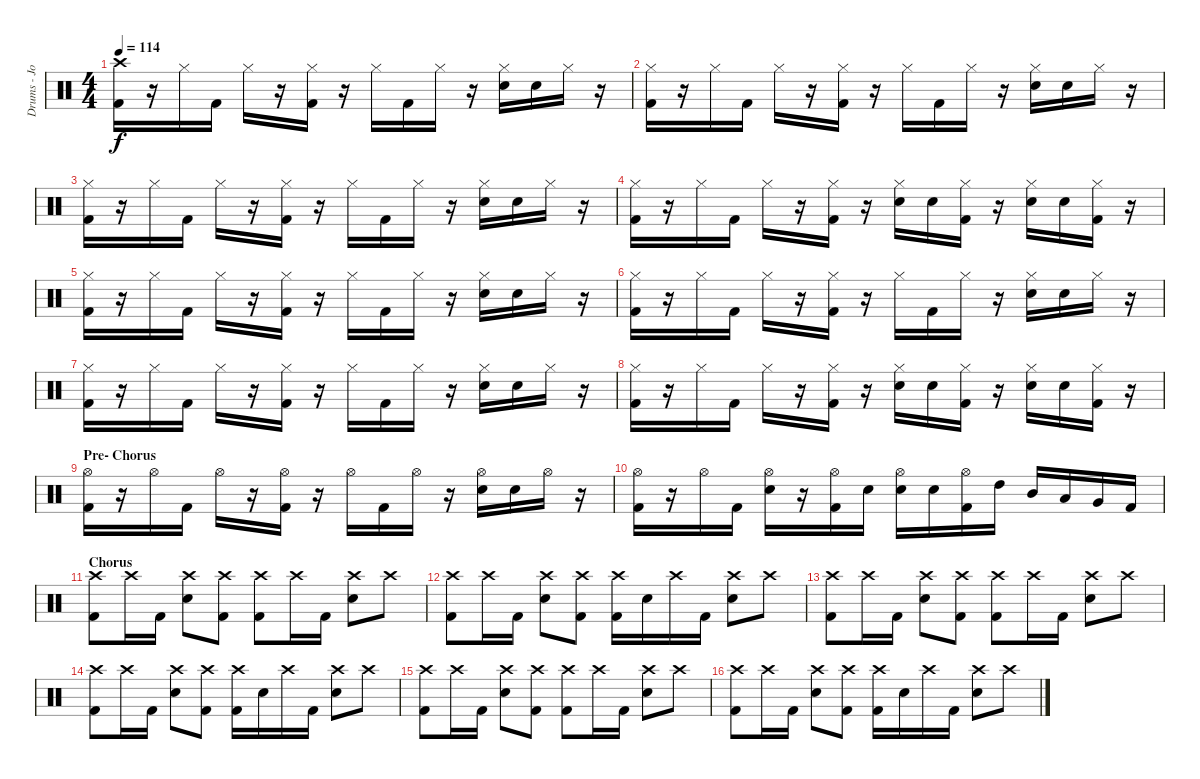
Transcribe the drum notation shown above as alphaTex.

\track ("Drums - Jon Wysocki" "Drums - Jo") {instrument percussion}
\staff {score}
\articulation defaults
\ts (4 4)
\tempo 114
\clef neutral
\ks c
("Crash high (hit)" "Kick (hit) 2").16{dy f} r.16 "Hi-Hat (closed)".16 "Kick (hit) 2".16 "Hi-Hat (closed)".16 r.16 ("Hi-Hat (closed)" "Kick (hit) 2").16 r.16 "Hi-Hat (closed)".16 "Kick (hit) 2".16 "Hi-Hat (closed)".16 r.16 ("Hi-Hat (closed)" "Electric Snare (hit)").16 "Electric Snare (hit)".16 "Hi-Hat (closed)".16 r.16 |
("Hi-Hat (closed)" "Kick (hit) 2").16 r.16 "Hi-Hat (closed)".16 "Kick (hit) 2".16 "Hi-Hat (closed)".16 r.16 ("Hi-Hat (closed)" "Kick (hit) 2").16 r.16 "Hi-Hat (closed)".16 "Kick (hit) 2".16 "Hi-Hat (closed)".16 r.16 ("Hi-Hat (closed)" "Electric Snare (hit)").16 "Electric Snare (hit)".16 "Hi-Hat (closed)".16 r.16 |
("Hi-Hat (closed)" "Kick (hit) 2").16 r.16 "Hi-Hat (closed)".16 "Kick (hit) 2".16 "Hi-Hat (closed)".16 r.16 ("Hi-Hat (closed)" "Kick (hit) 2").16 r.16 "Hi-Hat (closed)".16 "Kick (hit) 2".16 "Hi-Hat (closed)".16 r.16 ("Hi-Hat (closed)" "Electric Snare (hit)").16 "Electric Snare (hit)".16 "Hi-Hat (closed)".16 r.16 |
("Hi-Hat (closed)" "Kick (hit) 2").16 r.16 "Hi-Hat (closed)".16 "Kick (hit) 2".16 "Hi-Hat (closed)".16 r.16 ("Hi-Hat (closed)" "Kick (hit) 2").16 r.16 ("Hi-Hat (closed)" "Electric Snare (hit)").16 "Electric Snare (hit)".16 ("Hi-Hat (closed)" "Kick (hit) 2").16 r.16 ("Hi-Hat (closed)" "Electric Snare (hit)").16 "Electric Snare (hit)".16 ("Hi-Hat (closed)" "Kick (hit) 2").16 r.16 |
("Hi-Hat (closed)" "Kick (hit) 2").16 r.16 "Hi-Hat (closed)".16 "Kick (hit) 2".16 "Hi-Hat (closed)".16 r.16 ("Hi-Hat (closed)" "Kick (hit) 2").16 r.16 "Hi-Hat (closed)".16 "Kick (hit) 2".16 "Hi-Hat (closed)".16 r.16 ("Hi-Hat (closed)" "Electric Snare (hit)").16 "Electric Snare (hit)".16 "Hi-Hat (closed)".16 r.16 |
("Hi-Hat (closed)" "Kick (hit) 2").16 r.16 "Hi-Hat (closed)".16 "Kick (hit) 2".16 "Hi-Hat (closed)".16 r.16 ("Hi-Hat (closed)" "Kick (hit) 2").16 r.16 "Hi-Hat (closed)".16 "Kick (hit) 2".16 "Hi-Hat (closed)".16 r.16 ("Hi-Hat (closed)" "Electric Snare (hit)").16 "Electric Snare (hit)".16 "Hi-Hat (closed)".16 r.16 |
("Hi-Hat (closed)" "Kick (hit) 2").16 r.16 "Hi-Hat (closed)".16 "Kick (hit) 2".16 "Hi-Hat (closed)".16 r.16 ("Hi-Hat (closed)" "Kick (hit) 2").16 r.16 "Hi-Hat (closed)".16 "Kick (hit) 2".16 "Hi-Hat (closed)".16 r.16 ("Hi-Hat (closed)" "Electric Snare (hit)").16 "Electric Snare (hit)".16 "Hi-Hat (closed)".16 r.16 |
("Hi-Hat (closed)" "Kick (hit) 2").16 r.16 "Hi-Hat (closed)".16 "Kick (hit) 2".16 "Hi-Hat (closed)".16 r.16 ("Hi-Hat (closed)" "Kick (hit) 2").16 r.16 ("Hi-Hat (closed)" "Electric Snare (hit)").16 "Electric Snare (hit)".16 ("Hi-Hat (closed)" "Kick (hit) 2").16 r.16 ("Hi-Hat (closed)" "Electric Snare (hit)").16 "Electric Snare (hit)".16 ("Hi-Hat (closed)" "Kick (hit) 2").16 r.16 |
\section ("" "Pre- Chorus")
("Hi-Hat (open)" "Kick (hit) 2").16 r.16 "Hi-Hat (open)".16 "Kick (hit) 2".16 "Hi-Hat (open)".16 r.16 ("Hi-Hat (open)" "Kick (hit) 2").16 r.16 "Hi-Hat (open)".16 "Kick (hit) 2".16 "Hi-Hat (open)".16 r.16 ("Hi-Hat (open)" "Electric Snare (hit)").16 "Electric Snare (hit)".16 "Hi-Hat (open)".16 r.16 |
("Hi-Hat (open)" "Kick (hit) 2").16 r.16 "Hi-Hat (open)".16 "Kick (hit) 2".16 ("Hi-Hat (open)" "Electric Snare (hit)").16 r.16 ("Hi-Hat (open)" "Kick (hit) 2").16 "Electric Snare (hit)".16 ("Hi-Hat (open)" "Electric Snare (hit)").16 "Electric Snare (hit)".16 ("Hi-Hat (open)" "Kick (hit) 2").16 "High Tom (hit)".16 "Mid Tom (hit)".16 "Low Tom (hit)".16 "Very Low Tom (hit)".16 "Kick (hit) 2".16 |
\section ("" "Chorus")
("Crash high (hit)" "Kick (hit) 2").8 "Crash high (hit)".16 "Kick (hit) 2".16 ("Crash high (hit)" "Electric Snare (hit)").8 ("Crash high (hit)" "Kick (hit) 2").8 ("Crash high (hit)" "Kick (hit) 2").8 "Crash high (hit)".16 "Kick (hit) 2".16 ("Crash high (hit)" "Electric Snare (hit)").8 "Crash high (hit)".8 |
("Crash high (hit)" "Kick (hit) 2").8 "Crash high (hit)".16 "Kick (hit) 2".16 ("Crash high (hit)" "Electric Snare (hit)").8 ("Crash high (hit)" "Kick (hit) 2").8 ("Crash high (hit)" "Kick (hit) 2").16 "Electric Snare (hit)".16 "Crash high (hit)".16 "Kick (hit) 2".16 ("Crash high (hit)" "Electric Snare (hit)").8 "Crash high (hit)".8 |
("Crash high (hit)" "Kick (hit) 2").8 "Crash high (hit)".16 "Kick (hit) 2".16 ("Crash high (hit)" "Electric Snare (hit)").8 ("Crash high (hit)" "Kick (hit) 2").8 ("Crash high (hit)" "Kick (hit) 2").8 "Crash high (hit)".16 "Kick (hit) 2".16 ("Crash high (hit)" "Electric Snare (hit)").8 "Crash high (hit)".8 |
("Crash high (hit)" "Kick (hit) 2").8 "Crash high (hit)".16 "Kick (hit) 2".16 ("Crash high (hit)" "Electric Snare (hit)").8 ("Crash high (hit)" "Kick (hit) 2").8 ("Crash high (hit)" "Kick (hit) 2").16 "Electric Snare (hit)".16 "Crash high (hit)".16 "Kick (hit) 2".16 ("Crash high (hit)" "Electric Snare (hit)").8 "Crash high (hit)".8 |
("Crash high (hit)" "Kick (hit) 2").8 "Crash high (hit)".16 "Kick (hit) 2".16 ("Crash high (hit)" "Electric Snare (hit)").8 ("Crash high (hit)" "Kick (hit) 2").8 ("Crash high (hit)" "Kick (hit) 2").8 "Crash high (hit)".16 "Kick (hit) 2".16 ("Crash high (hit)" "Electric Snare (hit)").8 "Crash high (hit)".8 |
("Crash high (hit)" "Kick (hit) 2").8 "Crash high (hit)".16 "Kick (hit) 2".16 ("Crash high (hit)" "Electric Snare (hit)").8 ("Crash high (hit)" "Kick (hit) 2").8 ("Crash high (hit)" "Kick (hit) 2").16 "Electric Snare (hit)".16 "Crash high (hit)".16 "Kick (hit) 2".16 ("Crash high (hit)" "Electric Snare (hit)").8 "Crash high (hit)".8
